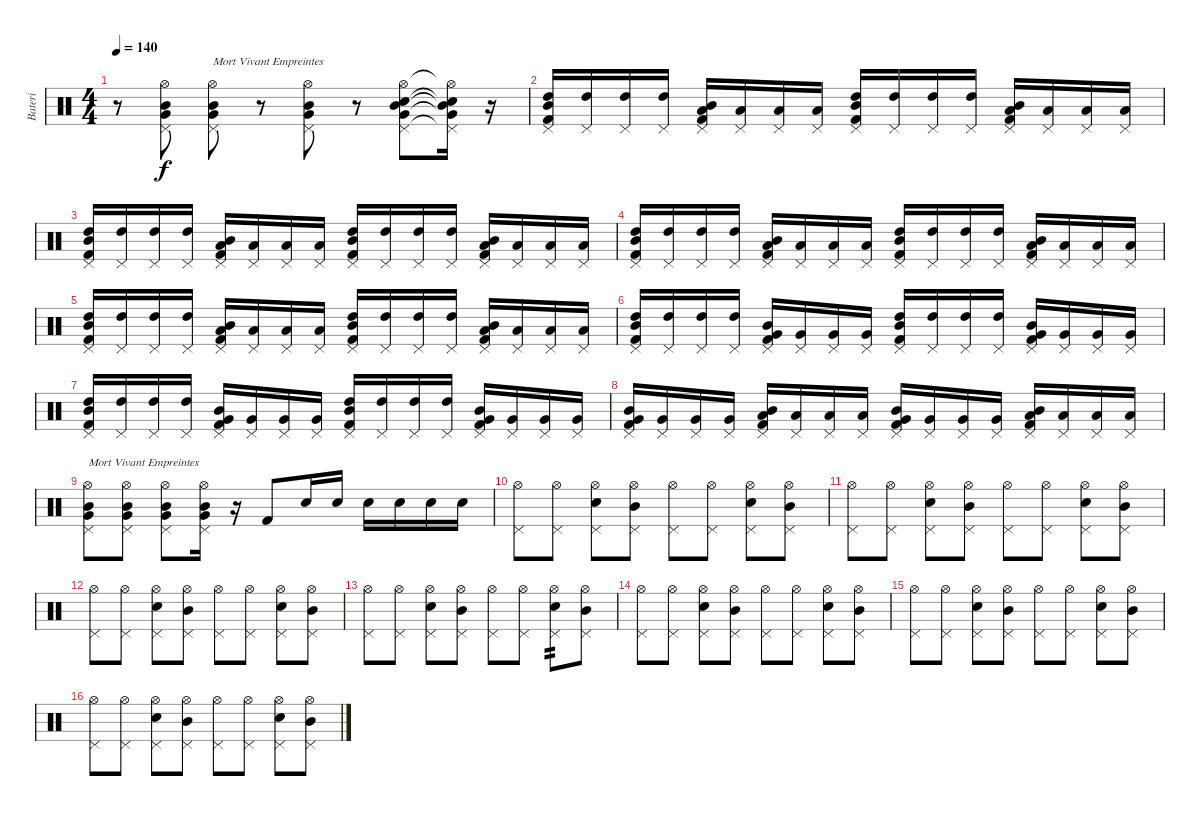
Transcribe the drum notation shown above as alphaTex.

\track ("Bateri" "Bateri") {instrument percussion}
\staff {score}
\articulation defaults
\ts (4 4)
\tempo 140
\clef neutral
\ks c
r.8{dy f} ("Hi-Hat (open)" "Very Low Tom (hit)" "Mid Tom (hit)" "Pedal Hi-Hat (hit)").8 ("Hi-Hat (open)" "Very Low Tom (hit)" "Mid Tom (hit)" "Pedal Hi-Hat (hit)").8{txt "Mort Vivant Empreintes"} r.8 ("Hi-Hat (open)" "Very Low Tom (hit)" "Mid Tom (hit)" "Pedal Hi-Hat (hit)").8 r.8 ("Hi-Hat (open)" "Very Low Tom (hit)" "Mid Tom (hit)" "Snare (hit) 2" "Pedal Hi-Hat (hit)").8 ("Hi-Hat (open)"{t} "Very Low Tom (hit)"{t} "Mid Tom (hit)"{t} "Snare (hit) 2"{t} "Pedal Hi-Hat (hit)"{t}).16 r.16 |
("High Tom (hit)" "Mid Tom (hit)" "Kick (hit) 2" "Pedal Hi-Hat (hit)").16 ("High Tom (hit)" "Pedal Hi-Hat (hit)").16 ("High Tom (hit)" "Pedal Hi-Hat (hit)").16 ("High Tom (hit)" "Pedal Hi-Hat (hit)").16 ("Low Tom (hit)" "Mid Tom (hit)" "Kick (hit) 2" "Pedal Hi-Hat (hit)").16 ("Low Tom (hit)" "Pedal Hi-Hat (hit)").16 ("Low Tom (hit)" "Pedal Hi-Hat (hit)").16 ("Low Tom (hit)" "Pedal Hi-Hat (hit)").16 ("High Tom (hit)" "Mid Tom (hit)" "Kick (hit) 2" "Pedal Hi-Hat (hit)").16 ("High Tom (hit)" "Pedal Hi-Hat (hit)").16 ("High Tom (hit)" "Pedal Hi-Hat (hit)").16 ("High Tom (hit)" "Pedal Hi-Hat (hit)").16 ("Low Tom (hit)" "Mid Tom (hit)" "Kick (hit) 2" "Pedal Hi-Hat (hit)").16 ("Low Tom (hit)" "Pedal Hi-Hat (hit)").16 ("Low Tom (hit)" "Pedal Hi-Hat (hit)").16 ("Low Tom (hit)" "Pedal Hi-Hat (hit)").16 |
("High Tom (hit)" "Mid Tom (hit)" "Kick (hit) 2" "Pedal Hi-Hat (hit)").16 ("High Tom (hit)" "Pedal Hi-Hat (hit)").16 ("High Tom (hit)" "Pedal Hi-Hat (hit)").16 ("High Tom (hit)" "Pedal Hi-Hat (hit)").16 ("Low Tom (hit)" "Mid Tom (hit)" "Kick (hit) 2" "Pedal Hi-Hat (hit)").16 ("Low Tom (hit)" "Pedal Hi-Hat (hit)").16 ("Low Tom (hit)" "Pedal Hi-Hat (hit)").16 ("Low Tom (hit)" "Pedal Hi-Hat (hit)").16 ("High Tom (hit)" "Mid Tom (hit)" "Kick (hit) 2" "Pedal Hi-Hat (hit)").16 ("High Tom (hit)" "Pedal Hi-Hat (hit)").16 ("High Tom (hit)" "Pedal Hi-Hat (hit)").16 ("High Tom (hit)" "Pedal Hi-Hat (hit)").16 ("Low Tom (hit)" "Mid Tom (hit)" "Kick (hit) 2" "Pedal Hi-Hat (hit)").16 ("Low Tom (hit)" "Pedal Hi-Hat (hit)").16 ("Low Tom (hit)" "Pedal Hi-Hat (hit)").16 ("Low Tom (hit)" "Pedal Hi-Hat (hit)").16 |
("High Tom (hit)" "Mid Tom (hit)" "Kick (hit) 2" "Pedal Hi-Hat (hit)").16 ("High Tom (hit)" "Pedal Hi-Hat (hit)").16 ("High Tom (hit)" "Pedal Hi-Hat (hit)").16 ("High Tom (hit)" "Pedal Hi-Hat (hit)").16 ("Low Tom (hit)" "Mid Tom (hit)" "Kick (hit) 2" "Pedal Hi-Hat (hit)").16 ("Low Tom (hit)" "Pedal Hi-Hat (hit)").16 ("Low Tom (hit)" "Pedal Hi-Hat (hit)").16 ("Low Tom (hit)" "Pedal Hi-Hat (hit)").16 ("High Tom (hit)" "Mid Tom (hit)" "Kick (hit) 2" "Pedal Hi-Hat (hit)").16 ("High Tom (hit)" "Pedal Hi-Hat (hit)").16 ("High Tom (hit)" "Pedal Hi-Hat (hit)").16 ("High Tom (hit)" "Pedal Hi-Hat (hit)").16 ("Low Tom (hit)" "Mid Tom (hit)" "Kick (hit) 2" "Pedal Hi-Hat (hit)").16 ("Low Tom (hit)" "Pedal Hi-Hat (hit)").16 ("Low Tom (hit)" "Pedal Hi-Hat (hit)").16 ("Low Tom (hit)" "Pedal Hi-Hat (hit)").16 |
("High Tom (hit)" "Mid Tom (hit)" "Kick (hit) 2" "Pedal Hi-Hat (hit)").16 ("High Tom (hit)" "Pedal Hi-Hat (hit)").16 ("High Tom (hit)" "Pedal Hi-Hat (hit)").16 ("High Tom (hit)" "Pedal Hi-Hat (hit)").16 ("Low Tom (hit)" "Mid Tom (hit)" "Kick (hit) 2" "Pedal Hi-Hat (hit)").16 ("Low Tom (hit)" "Pedal Hi-Hat (hit)").16 ("Low Tom (hit)" "Pedal Hi-Hat (hit)").16 ("Low Tom (hit)" "Pedal Hi-Hat (hit)").16 ("High Tom (hit)" "Mid Tom (hit)" "Kick (hit) 2" "Pedal Hi-Hat (hit)").16 ("High Tom (hit)" "Pedal Hi-Hat (hit)").16 ("High Tom (hit)" "Pedal Hi-Hat (hit)").16 ("High Tom (hit)" "Pedal Hi-Hat (hit)").16 ("Low Tom (hit)" "Mid Tom (hit)" "Kick (hit) 2" "Pedal Hi-Hat (hit)").16 ("Low Tom (hit)" "Pedal Hi-Hat (hit)").16 ("Low Tom (hit)" "Pedal Hi-Hat (hit)").16 ("Low Tom (hit)" "Pedal Hi-Hat (hit)").16 |
("High Tom (hit)" "Mid Tom (hit)" "Kick (hit) 2" "Pedal Hi-Hat (hit)").16 ("High Tom (hit)" "Pedal Hi-Hat (hit)").16 ("High Tom (hit)" "Pedal Hi-Hat (hit)").16 ("High Tom (hit)" "Pedal Hi-Hat (hit)").16 ("Very Low Tom (hit)" "Mid Tom (hit)" "Kick (hit) 2" "Pedal Hi-Hat (hit)").16 ("Very Low Tom (hit)" "Pedal Hi-Hat (hit)").16 ("Very Low Tom (hit)" "Pedal Hi-Hat (hit)").16 ("Very Low Tom (hit)" "Pedal Hi-Hat (hit)").16 ("High Tom (hit)" "Mid Tom (hit)" "Kick (hit) 2" "Pedal Hi-Hat (hit)").16 ("High Tom (hit)" "Pedal Hi-Hat (hit)").16 ("High Tom (hit)" "Pedal Hi-Hat (hit)").16 ("High Tom (hit)" "Pedal Hi-Hat (hit)").16 ("Very Low Tom (hit)" "Mid Tom (hit)" "Kick (hit) 2" "Pedal Hi-Hat (hit)").16 ("Very Low Tom (hit)" "Pedal Hi-Hat (hit)").16 ("Very Low Tom (hit)" "Pedal Hi-Hat (hit)").16 ("Very Low Tom (hit)" "Pedal Hi-Hat (hit)").16 |
("High Tom (hit)" "Mid Tom (hit)" "Kick (hit) 2" "Pedal Hi-Hat (hit)").16 ("High Tom (hit)" "Pedal Hi-Hat (hit)").16 ("High Tom (hit)" "Pedal Hi-Hat (hit)").16 ("High Tom (hit)" "Pedal Hi-Hat (hit)").16 ("Very Low Tom (hit)" "Mid Tom (hit)" "Kick (hit) 2" "Pedal Hi-Hat (hit)").16 ("Very Low Tom (hit)" "Pedal Hi-Hat (hit)").16 ("Very Low Tom (hit)" "Pedal Hi-Hat (hit)").16 ("Very Low Tom (hit)" "Pedal Hi-Hat (hit)").16 ("High Tom (hit)" "Mid Tom (hit)" "Kick (hit) 2" "Pedal Hi-Hat (hit)").16 ("High Tom (hit)" "Pedal Hi-Hat (hit)").16 ("High Tom (hit)" "Pedal Hi-Hat (hit)").16 ("High Tom (hit)" "Pedal Hi-Hat (hit)").16 ("Very Low Tom (hit)" "Mid Tom (hit)" "Kick (hit) 2" "Pedal Hi-Hat (hit)").16 ("Very Low Tom (hit)" "Pedal Hi-Hat (hit)").16 ("Very Low Tom (hit)" "Pedal Hi-Hat (hit)").16 ("Very Low Tom (hit)" "Pedal Hi-Hat (hit)").16 |
("Very Low Tom (hit)" "Mid Tom (hit)" "Kick (hit) 2" "Pedal Hi-Hat (hit)").16 ("Very Low Tom (hit)" "Pedal Hi-Hat (hit)").16 ("Very Low Tom (hit)" "Pedal Hi-Hat (hit)").16 ("Very Low Tom (hit)" "Pedal Hi-Hat (hit)").16 ("Low Tom (hit)" "Mid Tom (hit)" "Kick (hit) 2" "Pedal Hi-Hat (hit)").16 ("Low Tom (hit)" "Pedal Hi-Hat (hit)").16 ("Low Tom (hit)" "Pedal Hi-Hat (hit)").16 ("Low Tom (hit)" "Pedal Hi-Hat (hit)").16 ("Very Low Tom (hit)" "Mid Tom (hit)" "Kick (hit) 2" "Pedal Hi-Hat (hit)").16 ("Very Low Tom (hit)" "Pedal Hi-Hat (hit)").16 ("Very Low Tom (hit)" "Pedal Hi-Hat (hit)").16 ("Very Low Tom (hit)" "Pedal Hi-Hat (hit)").16 ("Low Tom (hit)" "Mid Tom (hit)" "Kick (hit) 2" "Pedal Hi-Hat (hit)").16 ("Low Tom (hit)" "Pedal Hi-Hat (hit)").16 ("Low Tom (hit)" "Pedal Hi-Hat (hit)").16 ("Low Tom (hit)" "Pedal Hi-Hat (hit)").16 |
("Hi-Hat (open)" "Very Low Tom (hit)" "Mid Tom (hit)" "Pedal Hi-Hat (hit)").8{txt "Mort Vivant Empreintes"} ("Hi-Hat (open)" "Very Low Tom (hit)" "Mid Tom (hit)" "Pedal Hi-Hat (hit)").8 ("Hi-Hat (open)" "Very Low Tom (hit)" "Mid Tom (hit)" "Pedal Hi-Hat (hit)").8 ("Hi-Hat (open)" "Very Low Tom (hit)" "Mid Tom (hit)" "Pedal Hi-Hat (hit)").16 r.16 "Kick (hit) 2".8 "Snare (hit) 2".16 "Snare (hit) 2".16 "Snare (hit) 2".16 "Snare (hit) 2".16 "Snare (hit) 2".16 "Snare (hit) 2".16 |
("Hi-Hat (open)" "Pedal Hi-Hat (hit)").8 ("Hi-Hat (open)" "Pedal Hi-Hat (hit)").8 ("Hi-Hat (open)" "Snare (hit) 2" "Pedal Hi-Hat (hit)").8 ("Hi-Hat (open)" "Mid Tom (hit)" "Pedal Hi-Hat (hit)").8 ("Hi-Hat (open)" "Pedal Hi-Hat (hit)").8 ("Hi-Hat (open)" "Pedal Hi-Hat (hit)").8 ("Hi-Hat (open)" "Snare (hit) 2" "Pedal Hi-Hat (hit)").8 ("Hi-Hat (open)" "Mid Tom (hit)" "Pedal Hi-Hat (hit)").8 |
("Hi-Hat (open)" "Pedal Hi-Hat (hit)").8 ("Hi-Hat (open)" "Pedal Hi-Hat (hit)").8 ("Hi-Hat (open)" "Snare (hit) 2" "Pedal Hi-Hat (hit)").8 ("Hi-Hat (open)" "Mid Tom (hit)" "Pedal Hi-Hat (hit)").8 ("Hi-Hat (open)" "Pedal Hi-Hat (hit)").8 ("Hi-Hat (open)" "Pedal Hi-Hat (hit)").8 ("Hi-Hat (open)" "Snare (hit) 2" "Pedal Hi-Hat (hit)").8 ("Hi-Hat (open)" "Mid Tom (hit)" "Pedal Hi-Hat (hit)").8 |
("Hi-Hat (open)" "Pedal Hi-Hat (hit)").8 ("Hi-Hat (open)" "Pedal Hi-Hat (hit)").8 ("Hi-Hat (open)" "Snare (hit) 2" "Pedal Hi-Hat (hit)").8 ("Hi-Hat (open)" "Mid Tom (hit)" "Pedal Hi-Hat (hit)").8 ("Hi-Hat (open)" "Pedal Hi-Hat (hit)").8 ("Hi-Hat (open)" "Pedal Hi-Hat (hit)").8 ("Hi-Hat (open)" "Snare (hit) 2" "Pedal Hi-Hat (hit)").8 ("Hi-Hat (open)" "Mid Tom (hit)" "Pedal Hi-Hat (hit)").8 |
("Hi-Hat (open)" "Pedal Hi-Hat (hit)").8 ("Hi-Hat (open)" "Pedal Hi-Hat (hit)").8 ("Hi-Hat (open)" "Snare (hit) 2" "Pedal Hi-Hat (hit)").8 ("Hi-Hat (open)" "Mid Tom (hit)" "Pedal Hi-Hat (hit)").8 ("Hi-Hat (open)" "Pedal Hi-Hat (hit)").8 ("Hi-Hat (open)" "Pedal Hi-Hat (hit)").8 ("Hi-Hat (open)" "Snare (hit) 2" "Pedal Hi-Hat (hit)").8{tp 2} ("Hi-Hat (open)" "Mid Tom (hit)" "Pedal Hi-Hat (hit)").8 |
("Hi-Hat (open)" "Pedal Hi-Hat (hit)").8 ("Hi-Hat (open)" "Pedal Hi-Hat (hit)").8 ("Hi-Hat (open)" "Snare (hit) 2" "Pedal Hi-Hat (hit)").8 ("Hi-Hat (open)" "Mid Tom (hit)" "Pedal Hi-Hat (hit)").8 ("Hi-Hat (open)" "Pedal Hi-Hat (hit)").8 ("Hi-Hat (open)" "Pedal Hi-Hat (hit)").8 ("Hi-Hat (open)" "Snare (hit) 2" "Pedal Hi-Hat (hit)").8 ("Hi-Hat (open)" "Mid Tom (hit)" "Pedal Hi-Hat (hit)").8 |
("Hi-Hat (open)" "Pedal Hi-Hat (hit)").8 ("Hi-Hat (open)" "Pedal Hi-Hat (hit)").8 ("Hi-Hat (open)" "Snare (hit) 2" "Pedal Hi-Hat (hit)").8 ("Hi-Hat (open)" "Mid Tom (hit)" "Pedal Hi-Hat (hit)").8 ("Hi-Hat (open)" "Pedal Hi-Hat (hit)").8 ("Hi-Hat (open)" "Pedal Hi-Hat (hit)").8 ("Hi-Hat (open)" "Snare (hit) 2" "Pedal Hi-Hat (hit)").8 ("Hi-Hat (open)" "Mid Tom (hit)" "Pedal Hi-Hat (hit)").8 |
("Hi-Hat (open)" "Pedal Hi-Hat (hit)").8 ("Hi-Hat (open)" "Pedal Hi-Hat (hit)").8 ("Hi-Hat (open)" "Snare (hit) 2" "Pedal Hi-Hat (hit)").8 ("Hi-Hat (open)" "Mid Tom (hit)" "Pedal Hi-Hat (hit)").8 ("Hi-Hat (open)" "Pedal Hi-Hat (hit)").8 ("Hi-Hat (open)" "Pedal Hi-Hat (hit)").8 ("Hi-Hat (open)" "Snare (hit) 2" "Pedal Hi-Hat (hit)").8 ("Hi-Hat (open)" "Mid Tom (hit)" "Pedal Hi-Hat (hit)").8
